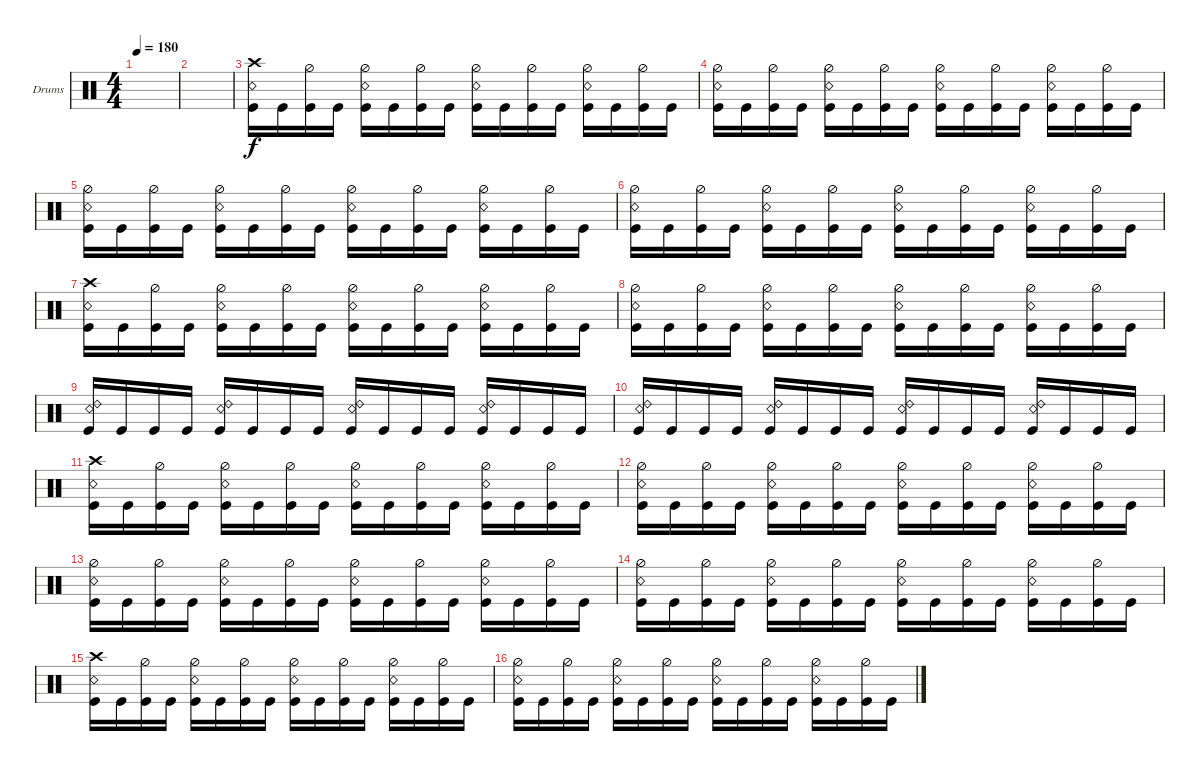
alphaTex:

\defaultSystemsLayout 4
\bracketExtendMode groupsimilarinstruments
\firstSystemTrackNameOrientation horizontal
\otherSystemsTrackNameOrientation horizontal
\track ("Drumkit" "Drums") {instrument percussion}
\staff {score}
\articulation defaults
\ts (4 4)
\tempo 180
\clef neutral
\ks c
|
|
("Kick (hit)" "Snare (rim shot)" "Crash high (hit)").16 "Kick (hit)".16 ("Kick (hit)" "Hi-Hat (half)").16 "Kick (hit)".16 ("Kick (hit)" "Hi-Hat (half)" "Snare (rim shot)").16 "Kick (hit)".16 ("Kick (hit)" "Hi-Hat (half)").16 "Kick (hit)".16 ("Kick (hit)" "Hi-Hat (half)" "Snare (rim shot)").16 "Kick (hit)".16 ("Kick (hit)" "Hi-Hat (half)").16 "Kick (hit)".16 ("Kick (hit)" "Hi-Hat (half)" "Snare (rim shot)").16 "Kick (hit)".16 ("Kick (hit)" "Hi-Hat (half)").16 "Kick (hit)".16 |
("Kick (hit)" "Snare (rim shot)" "Hi-Hat (half)").16 "Kick (hit)".16 ("Kick (hit)" "Hi-Hat (half)").16 "Kick (hit)".16 ("Kick (hit)" "Hi-Hat (half)" "Snare (rim shot)").16 "Kick (hit)".16 ("Kick (hit)" "Hi-Hat (half)").16 "Kick (hit)".16 ("Kick (hit)" "Hi-Hat (half)" "Snare (rim shot)").16 "Kick (hit)".16 ("Kick (hit)" "Hi-Hat (half)").16 "Kick (hit)".16 ("Kick (hit)" "Hi-Hat (half)" "Snare (rim shot)").16 "Kick (hit)".16 ("Kick (hit)" "Hi-Hat (half)").16 "Kick (hit)".16 |
("Kick (hit)" "Snare (rim shot)" "Hi-Hat (half)").16 "Kick (hit)".16 ("Kick (hit)" "Hi-Hat (half)").16 "Kick (hit)".16 ("Kick (hit)" "Hi-Hat (half)" "Snare (rim shot)").16 "Kick (hit)".16 ("Kick (hit)" "Hi-Hat (half)").16 "Kick (hit)".16 ("Kick (hit)" "Hi-Hat (half)" "Snare (rim shot)").16 "Kick (hit)".16 ("Kick (hit)" "Hi-Hat (half)").16 "Kick (hit)".16 ("Kick (hit)" "Hi-Hat (half)" "Snare (rim shot)").16 "Kick (hit)".16 ("Kick (hit)" "Hi-Hat (half)").16 "Kick (hit)".16 |
("Kick (hit)" "Snare (rim shot)" "Hi-Hat (half)").16 "Kick (hit)".16 ("Kick (hit)" "Hi-Hat (half)").16 "Kick (hit)".16 ("Kick (hit)" "Hi-Hat (half)" "Snare (rim shot)").16 "Kick (hit)".16 ("Kick (hit)" "Hi-Hat (half)").16 "Kick (hit)".16 ("Kick (hit)" "Hi-Hat (half)" "Snare (rim shot)").16 "Kick (hit)".16 ("Kick (hit)" "Hi-Hat (half)").16 "Kick (hit)".16 ("Kick (hit)" "Hi-Hat (half)" "Snare (rim shot)").16 "Kick (hit)".16 ("Kick (hit)" "Hi-Hat (half)").16 "Kick (hit)".16 |
("Kick (hit)" "Snare (rim shot)" "Crash high (hit)").16 "Kick (hit)".16 ("Kick (hit)" "Hi-Hat (half)").16 "Kick (hit)".16 ("Kick (hit)" "Hi-Hat (half)" "Snare (rim shot)").16 "Kick (hit)".16 ("Kick (hit)" "Hi-Hat (half)").16 "Kick (hit)".16 ("Kick (hit)" "Hi-Hat (half)" "Snare (rim shot)").16 "Kick (hit)".16 ("Kick (hit)" "Hi-Hat (half)").16 "Kick (hit)".16 ("Kick (hit)" "Hi-Hat (half)" "Snare (rim shot)").16 "Kick (hit)".16 ("Kick (hit)" "Hi-Hat (half)").16 "Kick (hit)".16 |
("Kick (hit)" "Snare (rim shot)" "Hi-Hat (half)").16 "Kick (hit)".16 ("Kick (hit)" "Hi-Hat (half)").16 "Kick (hit)".16 ("Kick (hit)" "Hi-Hat (half)" "Snare (rim shot)").16 "Kick (hit)".16 ("Kick (hit)" "Hi-Hat (half)").16 "Kick (hit)".16 ("Kick (hit)" "Hi-Hat (half)" "Snare (rim shot)").16 "Kick (hit)".16 ("Kick (hit)" "Hi-Hat (half)").16 "Kick (hit)".16 ("Kick (hit)" "Hi-Hat (half)" "Snare (rim shot)").16 "Kick (hit)".16 ("Kick (hit)" "Hi-Hat (half)").16 "Kick (hit)".16 |
("Kick (hit)" "Snare (rim shot)" "Ride (bell) 2").16 "Kick (hit)".16 "Kick (hit)".16 "Kick (hit)".16 ("Kick (hit)" "Snare (rim shot)" "Ride (bell) 2").16 "Kick (hit)".16 "Kick (hit)".16 "Kick (hit)".16 ("Kick (hit)" "Snare (rim shot)" "Ride (bell) 2").16 "Kick (hit)".16 "Kick (hit)".16 "Kick (hit)".16 ("Kick (hit)" "Snare (rim shot)" "Ride (bell) 2").16 "Kick (hit)".16 "Kick (hit)".16 "Kick (hit)".16 |
("Kick (hit)" "Snare (rim shot)" "Ride (bell) 2").16 "Kick (hit)".16 "Kick (hit)".16 "Kick (hit)".16 ("Kick (hit)" "Snare (rim shot)" "Ride (bell) 2").16 "Kick (hit)".16 "Kick (hit)".16 "Kick (hit)".16 ("Kick (hit)" "Snare (rim shot)" "Ride (bell) 2").16 "Kick (hit)".16 "Kick (hit)".16 "Kick (hit)".16 ("Kick (hit)" "Snare (rim shot)" "Ride (bell) 2").16 "Kick (hit)".16 "Kick (hit)".16 "Kick (hit)".16 |
("Kick (hit)" "Snare (rim shot)" "Crash high (hit)").16 "Kick (hit)".16 ("Kick (hit)" "Hi-Hat (half)").16 "Kick (hit)".16 ("Kick (hit)" "Hi-Hat (half)" "Snare (rim shot)").16 "Kick (hit)".16 ("Kick (hit)" "Hi-Hat (half)").16 "Kick (hit)".16 ("Kick (hit)" "Hi-Hat (half)" "Snare (rim shot)").16 "Kick (hit)".16 ("Kick (hit)" "Hi-Hat (half)").16 "Kick (hit)".16 ("Kick (hit)" "Hi-Hat (half)" "Snare (rim shot)").16 "Kick (hit)".16 ("Kick (hit)" "Hi-Hat (half)").16 "Kick (hit)".16 |
("Kick (hit)" "Snare (rim shot)" "Hi-Hat (half)").16 "Kick (hit)".16 ("Kick (hit)" "Hi-Hat (half)").16 "Kick (hit)".16 ("Kick (hit)" "Hi-Hat (half)" "Snare (rim shot)").16 "Kick (hit)".16 ("Kick (hit)" "Hi-Hat (half)").16 "Kick (hit)".16 ("Kick (hit)" "Hi-Hat (half)" "Snare (rim shot)").16 "Kick (hit)".16 ("Kick (hit)" "Hi-Hat (half)").16 "Kick (hit)".16 ("Kick (hit)" "Hi-Hat (half)" "Snare (rim shot)").16 "Kick (hit)".16 ("Kick (hit)" "Hi-Hat (half)").16 "Kick (hit)".16 |
("Kick (hit)" "Snare (rim shot)" "Hi-Hat (half)").16 "Kick (hit)".16 ("Kick (hit)" "Hi-Hat (half)").16 "Kick (hit)".16 ("Kick (hit)" "Hi-Hat (half)" "Snare (rim shot)").16 "Kick (hit)".16 ("Kick (hit)" "Hi-Hat (half)").16 "Kick (hit)".16 ("Kick (hit)" "Hi-Hat (half)" "Snare (rim shot)").16 "Kick (hit)".16 ("Kick (hit)" "Hi-Hat (half)").16 "Kick (hit)".16 ("Kick (hit)" "Hi-Hat (half)" "Snare (rim shot)").16 "Kick (hit)".16 ("Kick (hit)" "Hi-Hat (half)").16 "Kick (hit)".16 |
("Kick (hit)" "Snare (rim shot)" "Hi-Hat (half)").16 "Kick (hit)".16 ("Kick (hit)" "Hi-Hat (half)").16 "Kick (hit)".16 ("Kick (hit)" "Hi-Hat (half)" "Snare (rim shot)").16 "Kick (hit)".16 ("Kick (hit)" "Hi-Hat (half)").16 "Kick (hit)".16 ("Kick (hit)" "Hi-Hat (half)" "Snare (rim shot)").16 "Kick (hit)".16 ("Kick (hit)" "Hi-Hat (half)").16 "Kick (hit)".16 ("Kick (hit)" "Hi-Hat (half)" "Snare (rim shot)").16 "Kick (hit)".16 ("Kick (hit)" "Hi-Hat (half)").16 "Kick (hit)".16 |
("Kick (hit)" "Snare (rim shot)" "Crash high (hit)").16 "Kick (hit)".16 ("Kick (hit)" "Hi-Hat (half)").16 "Kick (hit)".16 ("Kick (hit)" "Hi-Hat (half)" "Snare (rim shot)").16 "Kick (hit)".16 ("Kick (hit)" "Hi-Hat (half)").16 "Kick (hit)".16 ("Kick (hit)" "Hi-Hat (half)" "Snare (rim shot)").16 "Kick (hit)".16 ("Kick (hit)" "Hi-Hat (half)").16 "Kick (hit)".16 ("Kick (hit)" "Hi-Hat (half)" "Snare (rim shot)").16 "Kick (hit)".16 ("Kick (hit)" "Hi-Hat (half)").16 "Kick (hit)".16 |
("Kick (hit)" "Snare (rim shot)" "Hi-Hat (half)").16 "Kick (hit)".16 ("Kick (hit)" "Hi-Hat (half)").16 "Kick (hit)".16 ("Kick (hit)" "Hi-Hat (half)" "Snare (rim shot)").16 "Kick (hit)".16 ("Kick (hit)" "Hi-Hat (half)").16 "Kick (hit)".16 ("Kick (hit)" "Hi-Hat (half)" "Snare (rim shot)").16 "Kick (hit)".16 ("Kick (hit)" "Hi-Hat (half)").16 "Kick (hit)".16 ("Kick (hit)" "Hi-Hat (half)" "Snare (rim shot)").16 "Kick (hit)".16 ("Kick (hit)" "Hi-Hat (half)").16 "Kick (hit)".16
